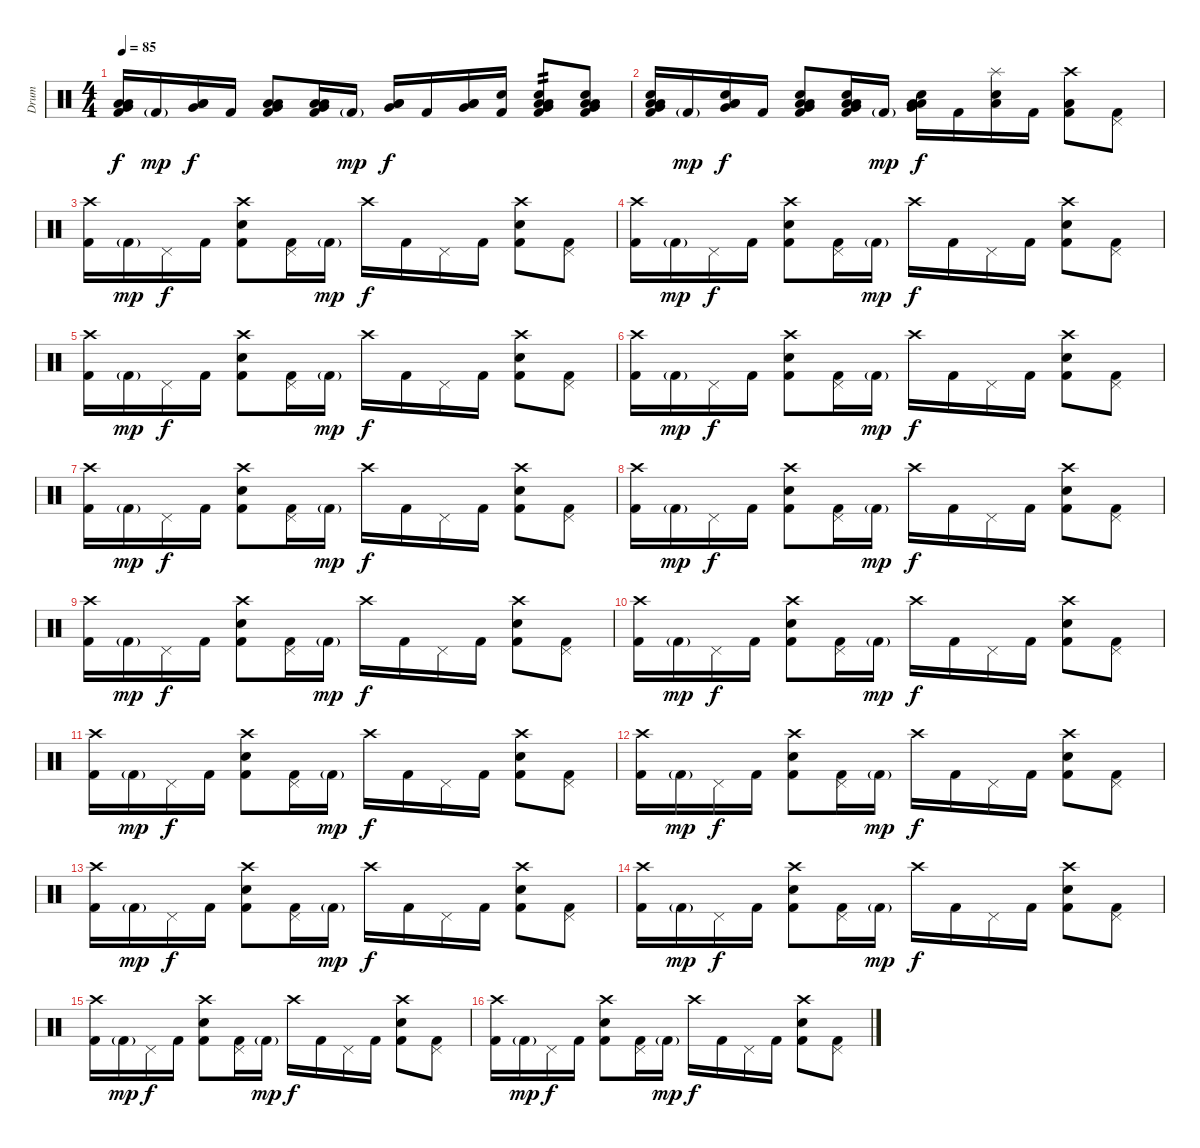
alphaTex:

\track ("Drum" "Drum") {instrument percussion}
\staff {score}
\articulation defaults
\ts (4 4)
\tempo 85
\clef neutral
\ks c
("Kick (hit) 2" "Low Floor Tom (hit)" "Low Tom (hit)" "Very Low Tom (hit)").16{dy f} "Kick (hit) 2"{g}.16{dy mp} ("Low Floor Tom (hit)" "Low Tom (hit)" "Very Low Tom (hit)").16{dy f} "Kick (hit) 2".16 ("Kick (hit) 2" "Low Floor Tom (hit)" "Low Tom (hit)" "Very Low Tom (hit)").8 ("Kick (hit) 2" "Low Floor Tom (hit)" "Low Tom (hit)" "Very Low Tom (hit)").16 "Kick (hit) 2"{g}.16{dy mp} ("Low Floor Tom (hit)" "Low Tom (hit)" "Very Low Tom (hit)").16{dy f} "Kick (hit) 2".16 ("Low Floor Tom (hit)" "Low Tom (hit)" "Very Low Tom (hit)").16 ("Kick (hit) 2" "Snare (hit) 2").16 ("Kick (hit) 2" "Snare (hit) 2" "Low Floor Tom (hit)" "Low Tom (hit)" "Very Low Tom (hit)").8{tp 2} ("Kick (hit) 2" "Snare (hit) 2" "Low Floor Tom (hit)" "Low Tom (hit)" "Very Low Tom (hit)").8 |
("Kick (hit) 2" "Snare (hit) 2" "Low Floor Tom (hit)" "Low Tom (hit)" "Very Low Tom (hit)").16 "Kick (hit) 2"{g}.16{dy mp} ("Snare (hit) 2" "Low Floor Tom (hit)" "Low Tom (hit)" "Very Low Tom (hit)").16{dy f} "Kick (hit) 2".16 ("Kick (hit) 2" "Snare (hit) 2" "Low Floor Tom (hit)" "Low Tom (hit)" "Very Low Tom (hit)").8 ("Kick (hit) 2" "Snare (hit) 2" "Low Floor Tom (hit)" "Low Tom (hit)" "Very Low Tom (hit)").16 "Kick (hit) 2"{g}.16{dy mp} ("Snare (hit) 2" "Low Floor Tom (hit)" "Low Tom (hit)" "Very Low Tom (hit)").16{dy f} "Kick (hit) 2".16 ("Snare (hit) 2" "Low Floor Tom (hit)" "Splash (hit)").16 "Kick (hit) 2".16 ("Kick (hit) 2" "Low Floor Tom (hit)" "Crash high (hit)").8 ("Kick (hit) 2" "Pedal Hi-Hat (hit)").8 |
("Kick (hit) 2" "Crash high (hit)").16 "Kick (hit) 2"{g}.16{dy mp} "Pedal Hi-Hat (hit)".16{dy f} "Kick (hit) 2".16 ("Kick (hit) 2" "Snare (hit) 2" "Crash high (hit)").8 ("Kick (hit) 2" "Pedal Hi-Hat (hit)").16 "Kick (hit) 2"{g}.16{dy mp} "Crash high (hit)".16{dy f} "Kick (hit) 2".16 "Pedal Hi-Hat (hit)".16 "Kick (hit) 2".16 ("Kick (hit) 2" "Snare (hit) 2" "Crash high (hit)").8 ("Kick (hit) 2" "Pedal Hi-Hat (hit)").8 |
("Kick (hit) 2" "Crash high (hit)").16 "Kick (hit) 2"{g}.16{dy mp} "Pedal Hi-Hat (hit)".16{dy f} "Kick (hit) 2".16 ("Kick (hit) 2" "Snare (hit) 2" "Crash high (hit)").8 ("Kick (hit) 2" "Pedal Hi-Hat (hit)").16 "Kick (hit) 2"{g}.16{dy mp} "Crash high (hit)".16{dy f} "Kick (hit) 2".16 "Pedal Hi-Hat (hit)".16 "Kick (hit) 2".16 ("Kick (hit) 2" "Snare (hit) 2" "Crash high (hit)").8 ("Kick (hit) 2" "Pedal Hi-Hat (hit)").8 |
("Kick (hit) 2" "Crash high (hit)").16 "Kick (hit) 2"{g}.16{dy mp} "Pedal Hi-Hat (hit)".16{dy f} "Kick (hit) 2".16 ("Kick (hit) 2" "Snare (hit) 2" "Crash high (hit)").8 ("Kick (hit) 2" "Pedal Hi-Hat (hit)").16 "Kick (hit) 2"{g}.16{dy mp} "Crash high (hit)".16{dy f} "Kick (hit) 2".16 "Pedal Hi-Hat (hit)".16 "Kick (hit) 2".16 ("Kick (hit) 2" "Snare (hit) 2" "Crash high (hit)").8 ("Kick (hit) 2" "Pedal Hi-Hat (hit)").8 |
("Kick (hit) 2" "Crash high (hit)").16 "Kick (hit) 2"{g}.16{dy mp} "Pedal Hi-Hat (hit)".16{dy f} "Kick (hit) 2".16 ("Kick (hit) 2" "Snare (hit) 2" "Crash high (hit)").8 ("Kick (hit) 2" "Pedal Hi-Hat (hit)").16 "Kick (hit) 2"{g}.16{dy mp} "Crash high (hit)".16{dy f} "Kick (hit) 2".16 "Pedal Hi-Hat (hit)".16 "Kick (hit) 2".16 ("Kick (hit) 2" "Snare (hit) 2" "Crash high (hit)").8 ("Kick (hit) 2" "Pedal Hi-Hat (hit)").8 |
("Kick (hit) 2" "Crash high (hit)").16 "Kick (hit) 2"{g}.16{dy mp} "Pedal Hi-Hat (hit)".16{dy f} "Kick (hit) 2".16 ("Kick (hit) 2" "Snare (hit) 2" "Crash high (hit)").8 ("Kick (hit) 2" "Pedal Hi-Hat (hit)").16 "Kick (hit) 2"{g}.16{dy mp} "Crash high (hit)".16{dy f} "Kick (hit) 2".16 "Pedal Hi-Hat (hit)".16 "Kick (hit) 2".16 ("Kick (hit) 2" "Snare (hit) 2" "Crash high (hit)").8 ("Kick (hit) 2" "Pedal Hi-Hat (hit)").8 |
("Kick (hit) 2" "Crash high (hit)").16 "Kick (hit) 2"{g}.16{dy mp} "Pedal Hi-Hat (hit)".16{dy f} "Kick (hit) 2".16 ("Kick (hit) 2" "Snare (hit) 2" "Crash high (hit)").8 ("Kick (hit) 2" "Pedal Hi-Hat (hit)").16 "Kick (hit) 2"{g}.16{dy mp} "Crash high (hit)".16{dy f} "Kick (hit) 2".16 "Pedal Hi-Hat (hit)".16 "Kick (hit) 2".16 ("Kick (hit) 2" "Snare (hit) 2" "Crash high (hit)").8 ("Kick (hit) 2" "Pedal Hi-Hat (hit)").8 |
("Kick (hit) 2" "Crash high (hit)").16 "Kick (hit) 2"{g}.16{dy mp} "Pedal Hi-Hat (hit)".16{dy f} "Kick (hit) 2".16 ("Kick (hit) 2" "Snare (hit) 2" "Crash high (hit)").8 ("Kick (hit) 2" "Pedal Hi-Hat (hit)").16 "Kick (hit) 2"{g}.16{dy mp} "Crash high (hit)".16{dy f} "Kick (hit) 2".16 "Pedal Hi-Hat (hit)".16 "Kick (hit) 2".16 ("Kick (hit) 2" "Snare (hit) 2" "Crash high (hit)").8 ("Kick (hit) 2" "Pedal Hi-Hat (hit)").8 |
("Kick (hit) 2" "Crash high (hit)").16 "Kick (hit) 2"{g}.16{dy mp} "Pedal Hi-Hat (hit)".16{dy f} "Kick (hit) 2".16 ("Kick (hit) 2" "Snare (hit) 2" "Crash high (hit)").8 ("Kick (hit) 2" "Pedal Hi-Hat (hit)").16 "Kick (hit) 2"{g}.16{dy mp} "Crash high (hit)".16{dy f} "Kick (hit) 2".16 "Pedal Hi-Hat (hit)".16 "Kick (hit) 2".16 ("Kick (hit) 2" "Snare (hit) 2" "Crash high (hit)").8 ("Kick (hit) 2" "Pedal Hi-Hat (hit)").8 |
("Kick (hit) 2" "Crash high (hit)").16 "Kick (hit) 2"{g}.16{dy mp} "Pedal Hi-Hat (hit)".16{dy f} "Kick (hit) 2".16 ("Kick (hit) 2" "Snare (hit) 2" "Crash high (hit)").8 ("Kick (hit) 2" "Pedal Hi-Hat (hit)").16 "Kick (hit) 2"{g}.16{dy mp} "Crash high (hit)".16{dy f} "Kick (hit) 2".16 "Pedal Hi-Hat (hit)".16 "Kick (hit) 2".16 ("Kick (hit) 2" "Snare (hit) 2" "Crash high (hit)").8 ("Kick (hit) 2" "Pedal Hi-Hat (hit)").8 |
("Kick (hit) 2" "Crash high (hit)").16 "Kick (hit) 2"{g}.16{dy mp} "Pedal Hi-Hat (hit)".16{dy f} "Kick (hit) 2".16 ("Kick (hit) 2" "Snare (hit) 2" "Crash high (hit)").8 ("Kick (hit) 2" "Pedal Hi-Hat (hit)").16 "Kick (hit) 2"{g}.16{dy mp} "Crash high (hit)".16{dy f} "Kick (hit) 2".16 "Pedal Hi-Hat (hit)".16 "Kick (hit) 2".16 ("Kick (hit) 2" "Snare (hit) 2" "Crash high (hit)").8 ("Kick (hit) 2" "Pedal Hi-Hat (hit)").8 |
("Kick (hit) 2" "Crash high (hit)").16 "Kick (hit) 2"{g}.16{dy mp} "Pedal Hi-Hat (hit)".16{dy f} "Kick (hit) 2".16 ("Kick (hit) 2" "Snare (hit) 2" "Crash high (hit)").8 ("Kick (hit) 2" "Pedal Hi-Hat (hit)").16 "Kick (hit) 2"{g}.16{dy mp} "Crash high (hit)".16{dy f} "Kick (hit) 2".16 "Pedal Hi-Hat (hit)".16 "Kick (hit) 2".16 ("Kick (hit) 2" "Snare (hit) 2" "Crash high (hit)").8 ("Kick (hit) 2" "Pedal Hi-Hat (hit)").8 |
("Kick (hit) 2" "Crash high (hit)").16 "Kick (hit) 2"{g}.16{dy mp} "Pedal Hi-Hat (hit)".16{dy f} "Kick (hit) 2".16 ("Kick (hit) 2" "Snare (hit) 2" "Crash high (hit)").8 ("Kick (hit) 2" "Pedal Hi-Hat (hit)").16 "Kick (hit) 2"{g}.16{dy mp} "Crash high (hit)".16{dy f} "Kick (hit) 2".16 "Pedal Hi-Hat (hit)".16 "Kick (hit) 2".16 ("Kick (hit) 2" "Snare (hit) 2" "Crash high (hit)").8 ("Kick (hit) 2" "Pedal Hi-Hat (hit)").8 |
("Kick (hit) 2" "Crash high (hit)").16 "Kick (hit) 2"{g}.16{dy mp} "Pedal Hi-Hat (hit)".16{dy f} "Kick (hit) 2".16 ("Kick (hit) 2" "Snare (hit) 2" "Crash high (hit)").8 ("Kick (hit) 2" "Pedal Hi-Hat (hit)").16 "Kick (hit) 2"{g}.16{dy mp} "Crash high (hit)".16{dy f} "Kick (hit) 2".16 "Pedal Hi-Hat (hit)".16 "Kick (hit) 2".16 ("Kick (hit) 2" "Snare (hit) 2" "Crash high (hit)").8 ("Kick (hit) 2" "Pedal Hi-Hat (hit)").8 |
("Kick (hit) 2" "Crash high (hit)").16 "Kick (hit) 2"{g}.16{dy mp} "Pedal Hi-Hat (hit)".16{dy f} "Kick (hit) 2".16 ("Kick (hit) 2" "Snare (hit) 2" "Crash high (hit)").8 ("Kick (hit) 2" "Pedal Hi-Hat (hit)").16 "Kick (hit) 2"{g}.16{dy mp} "Crash high (hit)".16{dy f} "Kick (hit) 2".16 "Pedal Hi-Hat (hit)".16 "Kick (hit) 2".16 ("Kick (hit) 2" "Snare (hit) 2" "Crash high (hit)").8 ("Kick (hit) 2" "Pedal Hi-Hat (hit)").8
